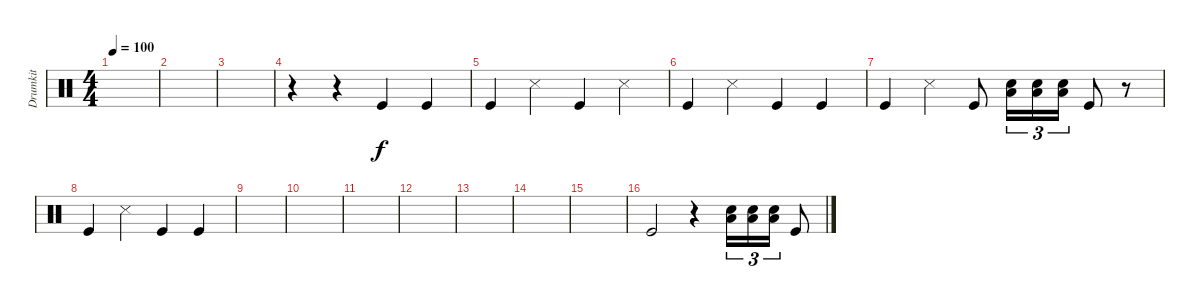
\track ("Drumkit" "Drumkit") {instrument percussion}
\staff {score}
\articulation defaults
\ts (4 4)
\tempo 100
\clef neutral
\ks c
|
|
|
r.4 r.4 "Kick (hit)".4 "Kick (hit)".4 |
"Kick (hit)".4 "Snare (side stick) 3".4 "Kick (hit)".4 "Snare (side stick) 3".4 |
"Kick (hit)".4 "Snare (side stick) 3".4 "Kick (hit)".4 "Kick (hit)".4 |
"Kick (hit)".4 "Snare (side stick) 3".4 "Kick (hit)".8 ("Snare (hit) 2" "Low Floor Tom (hit)").16{tu (3 2)} ("Snare (hit) 2" "Low Floor Tom (hit)").16{tu (3 2)} ("Snare (hit) 2" "Low Floor Tom (hit)").16{tu (3 2)} "Kick (hit)".8 r.8 |
"Kick (hit)".4 "Snare (side stick) 3".4 "Kick (hit)".4 "Kick (hit)".4 |
|
|
|
|
|
|
|
"Kick (hit)".2 r.4 ("Snare (hit) 2" "Low Floor Tom (hit)").16{tu (3 2)} ("Snare (hit) 2" "Low Floor Tom (hit)").16{tu (3 2)} ("Snare (hit) 2" "Low Floor Tom (hit)").16{tu (3 2)} "Kick (hit)".8
